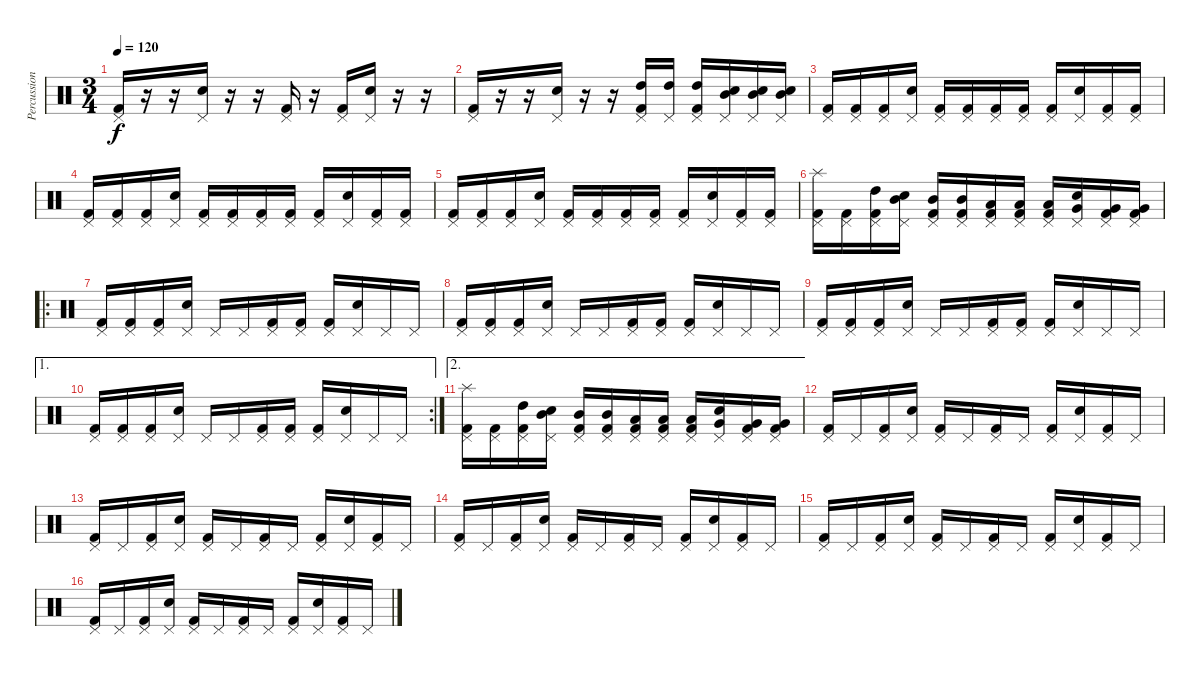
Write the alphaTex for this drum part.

\track ("Percussion" "Percussion") {instrument percussion}
\staff {score}
\articulation defaults
\ts (3 4)
\tempo 120
\clef neutral
\ks c
("Kick (hit) 2" "Pedal Hi-Hat (hit)").16{dy f} r.16 r.16 ("Pedal Hi-Hat (hit)" "Electric Snare (hit)").16 r.16 r.16 ("Kick (hit) 2" "Pedal Hi-Hat (hit)").16 r.16 ("Kick (hit) 2" "Pedal Hi-Hat (hit)").16 ("Pedal Hi-Hat (hit)" "Electric Snare (hit)").16 r.16 r.16 |
("Kick (hit) 2" "Pedal Hi-Hat (hit)").16 r.16 r.16 ("Pedal Hi-Hat (hit)" "Electric Snare (hit)").16 r.16 r.16 ("Kick (hit) 2" "Pedal Hi-Hat (hit)" "High Tom (hit)").16 ("Pedal Hi-Hat (hit)" "High Tom (hit)").16 ("Kick (hit) 2" "Pedal Hi-Hat (hit)" "High Tom (hit)").16 ("Pedal Hi-Hat (hit)" "Electric Snare (hit)" "Mid Tom (hit)").16 ("Pedal Hi-Hat (hit)" "Electric Snare (hit)" "Mid Tom (hit)").16 ("Pedal Hi-Hat (hit)" "Electric Snare (hit)" "Mid Tom (hit)").16 |
("Kick (hit) 2" "Pedal Hi-Hat (hit)").16 ("Kick (hit) 2" "Pedal Hi-Hat (hit)").16 ("Kick (hit) 2" "Pedal Hi-Hat (hit)").16 ("Pedal Hi-Hat (hit)" "Electric Snare (hit)").16 ("Kick (hit) 2" "Pedal Hi-Hat (hit)").16 ("Kick (hit) 2" "Pedal Hi-Hat (hit)").16 ("Kick (hit) 2" "Pedal Hi-Hat (hit)").16 ("Kick (hit) 2" "Pedal Hi-Hat (hit)").16 ("Kick (hit) 2" "Pedal Hi-Hat (hit)").16 ("Pedal Hi-Hat (hit)" "Electric Snare (hit)").16 ("Kick (hit) 2" "Pedal Hi-Hat (hit)").16 ("Kick (hit) 2" "Pedal Hi-Hat (hit)").16 |
("Kick (hit) 2" "Pedal Hi-Hat (hit)").16 ("Kick (hit) 2" "Pedal Hi-Hat (hit)").16 ("Kick (hit) 2" "Pedal Hi-Hat (hit)").16 ("Pedal Hi-Hat (hit)" "Electric Snare (hit)").16 ("Kick (hit) 2" "Pedal Hi-Hat (hit)").16 ("Kick (hit) 2" "Pedal Hi-Hat (hit)").16 ("Kick (hit) 2" "Pedal Hi-Hat (hit)").16 ("Kick (hit) 2" "Pedal Hi-Hat (hit)").16 ("Kick (hit) 2" "Pedal Hi-Hat (hit)").16 ("Pedal Hi-Hat (hit)" "Electric Snare (hit)").16 ("Kick (hit) 2" "Pedal Hi-Hat (hit)").16 ("Kick (hit) 2" "Pedal Hi-Hat (hit)").16 |
("Kick (hit) 2" "Pedal Hi-Hat (hit)").16 ("Kick (hit) 2" "Pedal Hi-Hat (hit)").16 ("Kick (hit) 2" "Pedal Hi-Hat (hit)").16 ("Pedal Hi-Hat (hit)" "Electric Snare (hit)").16 ("Kick (hit) 2" "Pedal Hi-Hat (hit)").16 ("Kick (hit) 2" "Pedal Hi-Hat (hit)").16 ("Kick (hit) 2" "Pedal Hi-Hat (hit)").16 ("Kick (hit) 2" "Pedal Hi-Hat (hit)").16 ("Kick (hit) 2" "Pedal Hi-Hat (hit)").16 ("Pedal Hi-Hat (hit)" "Electric Snare (hit)").16 ("Kick (hit) 2" "Pedal Hi-Hat (hit)").16 ("Kick (hit) 2" "Pedal Hi-Hat (hit)").16 |
("Kick (hit) 2" "Pedal Hi-Hat (hit)" "Splash (hit)").16 ("Kick (hit) 2" "Pedal Hi-Hat (hit)").16 ("Kick (hit) 2" "Pedal Hi-Hat (hit)" "High Tom (hit)").16 ("Pedal Hi-Hat (hit)" "Electric Snare (hit)" "Mid Tom (hit)").16 ("Kick (hit) 2" "Pedal Hi-Hat (hit)" "Mid Tom (hit)").16 ("Kick (hit) 2" "Pedal Hi-Hat (hit)" "Mid Tom (hit)").16 ("Kick (hit) 2" "Pedal Hi-Hat (hit)" "Low Tom (hit)").16 ("Kick (hit) 2" "Pedal Hi-Hat (hit)" "Low Tom (hit)").16 ("Kick (hit) 2" "Pedal Hi-Hat (hit)" "Low Tom (hit)").16 ("Pedal Hi-Hat (hit)" "Electric Snare (hit)" "Very Low Tom (hit)").16 ("Kick (hit) 2" "Pedal Hi-Hat (hit)" "Very Low Tom (hit)").16 ("Kick (hit) 2" "Pedal Hi-Hat (hit)" "Very Low Tom (hit)").16 |
\ro
("Kick (hit) 2" "Pedal Hi-Hat (hit)").16 ("Kick (hit) 2" "Pedal Hi-Hat (hit)").16 ("Kick (hit) 2" "Pedal Hi-Hat (hit)").16 ("Pedal Hi-Hat (hit)" "Electric Snare (hit)").16 "Pedal Hi-Hat (hit)".16 "Pedal Hi-Hat (hit)".16 ("Kick (hit) 2" "Pedal Hi-Hat (hit)").16 ("Kick (hit) 2" "Pedal Hi-Hat (hit)").16 ("Kick (hit) 2" "Pedal Hi-Hat (hit)").16 ("Pedal Hi-Hat (hit)" "Electric Snare (hit)").16 "Pedal Hi-Hat (hit)".16 "Pedal Hi-Hat (hit)".16 |
("Kick (hit) 2" "Pedal Hi-Hat (hit)").16 ("Kick (hit) 2" "Pedal Hi-Hat (hit)").16 ("Kick (hit) 2" "Pedal Hi-Hat (hit)").16 ("Pedal Hi-Hat (hit)" "Electric Snare (hit)").16 "Pedal Hi-Hat (hit)".16 "Pedal Hi-Hat (hit)".16 ("Kick (hit) 2" "Pedal Hi-Hat (hit)").16 ("Kick (hit) 2" "Pedal Hi-Hat (hit)").16 ("Kick (hit) 2" "Pedal Hi-Hat (hit)").16 ("Pedal Hi-Hat (hit)" "Electric Snare (hit)").16 "Pedal Hi-Hat (hit)".16 "Pedal Hi-Hat (hit)".16 |
("Kick (hit) 2" "Pedal Hi-Hat (hit)").16 ("Kick (hit) 2" "Pedal Hi-Hat (hit)").16 ("Kick (hit) 2" "Pedal Hi-Hat (hit)").16 ("Pedal Hi-Hat (hit)" "Electric Snare (hit)").16 "Pedal Hi-Hat (hit)".16 "Pedal Hi-Hat (hit)".16 ("Kick (hit) 2" "Pedal Hi-Hat (hit)").16 ("Kick (hit) 2" "Pedal Hi-Hat (hit)").16 ("Kick (hit) 2" "Pedal Hi-Hat (hit)").16 ("Pedal Hi-Hat (hit)" "Electric Snare (hit)").16 "Pedal Hi-Hat (hit)".16 "Pedal Hi-Hat (hit)".16 |
\ae 1
\rc 2
("Kick (hit) 2" "Pedal Hi-Hat (hit)").16 ("Kick (hit) 2" "Pedal Hi-Hat (hit)").16 ("Kick (hit) 2" "Pedal Hi-Hat (hit)").16 ("Pedal Hi-Hat (hit)" "Electric Snare (hit)").16 "Pedal Hi-Hat (hit)".16 "Pedal Hi-Hat (hit)".16 ("Kick (hit) 2" "Pedal Hi-Hat (hit)").16 ("Kick (hit) 2" "Pedal Hi-Hat (hit)").16 ("Kick (hit) 2" "Pedal Hi-Hat (hit)").16 ("Pedal Hi-Hat (hit)" "Electric Snare (hit)").16 "Pedal Hi-Hat (hit)".16 "Pedal Hi-Hat (hit)".16 |
\ae 2
("Kick (hit) 2" "Pedal Hi-Hat (hit)" "Splash (hit)").16 ("Kick (hit) 2" "Pedal Hi-Hat (hit)").16 ("Kick (hit) 2" "Pedal Hi-Hat (hit)" "High Tom (hit)").16 ("Pedal Hi-Hat (hit)" "Electric Snare (hit)" "Mid Tom (hit)").16 ("Kick (hit) 2" "Pedal Hi-Hat (hit)" "Mid Tom (hit)").16 ("Kick (hit) 2" "Pedal Hi-Hat (hit)" "Mid Tom (hit)").16 ("Kick (hit) 2" "Pedal Hi-Hat (hit)" "Low Tom (hit)").16 ("Kick (hit) 2" "Pedal Hi-Hat (hit)" "Low Tom (hit)").16 ("Kick (hit) 2" "Pedal Hi-Hat (hit)" "Low Tom (hit)").16 ("Pedal Hi-Hat (hit)" "Electric Snare (hit)" "Very Low Tom (hit)").16 ("Kick (hit) 2" "Pedal Hi-Hat (hit)" "Very Low Tom (hit)").16 ("Kick (hit) 2" "Pedal Hi-Hat (hit)" "Very Low Tom (hit)").16 |
("Kick (hit) 2" "Pedal Hi-Hat (hit)").16 "Pedal Hi-Hat (hit)".16 ("Kick (hit) 2" "Pedal Hi-Hat (hit)").16 ("Pedal Hi-Hat (hit)" "Electric Snare (hit)").16 ("Kick (hit) 2" "Pedal Hi-Hat (hit)").16 "Pedal Hi-Hat (hit)".16 ("Kick (hit) 2" "Pedal Hi-Hat (hit)").16 "Pedal Hi-Hat (hit)".16 ("Kick (hit) 2" "Pedal Hi-Hat (hit)").16 ("Pedal Hi-Hat (hit)" "Electric Snare (hit)").16 ("Kick (hit) 2" "Pedal Hi-Hat (hit)").16 "Pedal Hi-Hat (hit)".16 |
("Kick (hit) 2" "Pedal Hi-Hat (hit)").16 "Pedal Hi-Hat (hit)".16 ("Kick (hit) 2" "Pedal Hi-Hat (hit)").16 ("Pedal Hi-Hat (hit)" "Electric Snare (hit)").16 ("Kick (hit) 2" "Pedal Hi-Hat (hit)").16 "Pedal Hi-Hat (hit)".16 ("Kick (hit) 2" "Pedal Hi-Hat (hit)").16 "Pedal Hi-Hat (hit)".16 ("Kick (hit) 2" "Pedal Hi-Hat (hit)").16 ("Pedal Hi-Hat (hit)" "Electric Snare (hit)").16 ("Kick (hit) 2" "Pedal Hi-Hat (hit)").16 "Pedal Hi-Hat (hit)".16 |
("Kick (hit) 2" "Pedal Hi-Hat (hit)").16 "Pedal Hi-Hat (hit)".16 ("Kick (hit) 2" "Pedal Hi-Hat (hit)").16 ("Pedal Hi-Hat (hit)" "Electric Snare (hit)").16 ("Kick (hit) 2" "Pedal Hi-Hat (hit)").16 "Pedal Hi-Hat (hit)".16 ("Kick (hit) 2" "Pedal Hi-Hat (hit)").16 "Pedal Hi-Hat (hit)".16 ("Kick (hit) 2" "Pedal Hi-Hat (hit)").16 ("Pedal Hi-Hat (hit)" "Electric Snare (hit)").16 ("Kick (hit) 2" "Pedal Hi-Hat (hit)").16 "Pedal Hi-Hat (hit)".16 |
("Kick (hit) 2" "Pedal Hi-Hat (hit)").16 "Pedal Hi-Hat (hit)".16 ("Kick (hit) 2" "Pedal Hi-Hat (hit)").16 ("Pedal Hi-Hat (hit)" "Electric Snare (hit)").16 ("Kick (hit) 2" "Pedal Hi-Hat (hit)").16 "Pedal Hi-Hat (hit)".16 ("Kick (hit) 2" "Pedal Hi-Hat (hit)").16 "Pedal Hi-Hat (hit)".16 ("Kick (hit) 2" "Pedal Hi-Hat (hit)").16 ("Pedal Hi-Hat (hit)" "Electric Snare (hit)").16 ("Kick (hit) 2" "Pedal Hi-Hat (hit)").16 "Pedal Hi-Hat (hit)".16 |
("Kick (hit) 2" "Pedal Hi-Hat (hit)").16 "Pedal Hi-Hat (hit)".16 ("Kick (hit) 2" "Pedal Hi-Hat (hit)").16 ("Pedal Hi-Hat (hit)" "Electric Snare (hit)").16 ("Kick (hit) 2" "Pedal Hi-Hat (hit)").16 "Pedal Hi-Hat (hit)".16 ("Kick (hit) 2" "Pedal Hi-Hat (hit)").16 "Pedal Hi-Hat (hit)".16 ("Kick (hit) 2" "Pedal Hi-Hat (hit)").16 ("Pedal Hi-Hat (hit)" "Electric Snare (hit)").16 ("Kick (hit) 2" "Pedal Hi-Hat (hit)").16 "Pedal Hi-Hat (hit)".16
